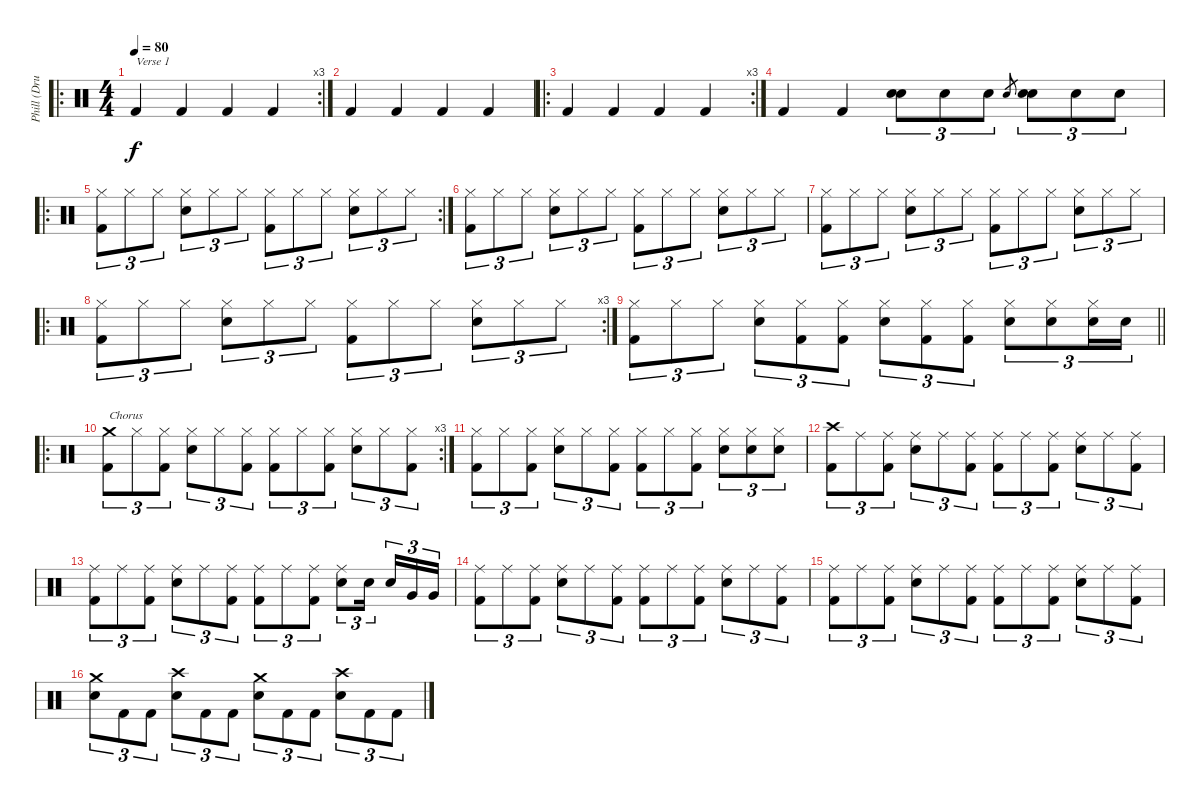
\track ("Phill (Drums)" "Phill (Dru") {instrument percussion}
\staff {score}
\articulation defaults
\ro
\rc 3
\ts (4 4)
\tempo 80
\clef neutral
\ks c "Kick (hit) 2".4{txt "Verse 1" dy f} "Kick (hit) 2".4 "Kick (hit) 2".4 "Kick (hit) 2".4
|
"Kick (hit) 2".4 "Kick (hit) 2".4 "Kick (hit) 2".4 "Kick (hit) 2".4 |
\ro
\rc 3 "Kick (hit) 2".4 "Kick (hit) 2".4 "Kick (hit) 2".4 "Kick (hit) 2".4
|
"Kick (hit) 2".4 "Kick (hit) 2".4 ("Electric Snare (hit)" "Electric Snare (hit)").8{tu (3 2)} "Electric Snare (hit)".8{tu (3 2)} "Electric Snare (hit)".8{tu (3 2)} "Electric Snare (hit)".8{gr} ("Electric Snare (hit)" "Electric Snare (hit)").8{tu (3 2)} "Electric Snare (hit)".8{tu (3 2)} "Electric Snare (hit)".8{tu (3 2)} |
\ro
\rc 2
("Kick (hit) 2" "Hi-Hat (closed)").8{tu (3 2)} "Hi-Hat (closed)".8{tu (3 2)} "Hi-Hat (closed)".8{tu (3 2)} ("Electric Snare (hit)" "Hi-Hat (closed)").8{tu (3 2)} "Hi-Hat (closed)".8{tu (3 2)} "Hi-Hat (closed)".8{tu (3 2)} ("Kick (hit) 2" "Hi-Hat (closed)").8{tu (3 2)} "Hi-Hat (closed)".8{tu (3 2)} "Hi-Hat (closed)".8{tu (3 2)} ("Electric Snare (hit)" "Hi-Hat (closed)").8{tu (3 2)} "Hi-Hat (closed)".8{tu (3 2)} "Hi-Hat (closed)".8{tu (3 2)} |
("Kick (hit) 2" "Hi-Hat (closed)").8{tu (3 2)} "Hi-Hat (closed)".8{tu (3 2)} "Hi-Hat (closed)".8{tu (3 2)} ("Electric Snare (hit)" "Hi-Hat (closed)").8{tu (3 2)} "Hi-Hat (closed)".8{tu (3 2)} "Hi-Hat (closed)".8{tu (3 2)} ("Kick (hit) 2" "Hi-Hat (closed)").8{tu (3 2)} "Hi-Hat (closed)".8{tu (3 2)} "Hi-Hat (closed)".8{tu (3 2)} ("Electric Snare (hit)" "Hi-Hat (closed)").8{tu (3 2)} "Hi-Hat (closed)".8{tu (3 2)} "Hi-Hat (closed)".8{tu (3 2)} |
("Kick (hit) 2" "Hi-Hat (closed)").8{tu (3 2)} "Hi-Hat (closed)".8{tu (3 2)} "Hi-Hat (closed)".8{tu (3 2)} ("Electric Snare (hit)" "Hi-Hat (closed)").8{tu (3 2)} "Hi-Hat (closed)".8{tu (3 2)} "Hi-Hat (closed)".8{tu (3 2)} ("Kick (hit) 2" "Hi-Hat (closed)").8{tu (3 2)} "Hi-Hat (closed)".8{tu (3 2)} "Hi-Hat (closed)".8{tu (3 2)} ("Electric Snare (hit)" "Hi-Hat (closed)").8{tu (3 2)} "Hi-Hat (closed)".8{tu (3 2)} "Hi-Hat (closed)".8{tu (3 2)} |
\ro
\rc 3
("Kick (hit) 2" "Hi-Hat (closed)").8{tu (3 2)} "Hi-Hat (closed)".8{tu (3 2)} "Hi-Hat (closed)".8{tu (3 2)} ("Electric Snare (hit)" "Hi-Hat (closed)").8{tu (3 2)} "Hi-Hat (closed)".8{tu (3 2)} "Hi-Hat (closed)".8{tu (3 2)} ("Kick (hit) 2" "Hi-Hat (closed)").8{tu (3 2)} "Hi-Hat (closed)".8{tu (3 2)} "Hi-Hat (closed)".8{tu (3 2)} ("Electric Snare (hit)" "Hi-Hat (closed)").8{tu (3 2)} "Hi-Hat (closed)".8{tu (3 2)} "Hi-Hat (closed)".8{tu (3 2)} |
\barLineRight lightlight
("Kick (hit) 2" "Hi-Hat (closed)").8{tu (3 2)} "Hi-Hat (closed)".8{tu (3 2)} "Hi-Hat (closed)".8{tu (3 2)} ("Electric Snare (hit)" "Hi-Hat (closed)").8{tu (3 2)} ("Kick (hit) 2" "Hi-Hat (closed)").8{tu (3 2)} ("Kick (hit) 2" "Hi-Hat (closed)").8{tu (3 2)} ("Electric Snare (hit)" "Hi-Hat (closed)").8{tu (3 2)} ("Kick (hit) 2" "Hi-Hat (closed)").8{tu (3 2)} ("Kick (hit) 2" "Hi-Hat (closed)").8{tu (3 2)} ("Electric Snare (hit)" "Hi-Hat (closed)").8{tu (3 2)} ("Electric Snare (hit)" "Hi-Hat (closed)").8{tu (3 2)} ("Electric Snare (hit)" "Hi-Hat (closed)").16{tu (3 2)} "Electric Snare (hit)".16{tu (3 2)} |
\ro
\rc 3
("Kick (hit) 2" "Crash medium (hit)").8{tu (3 2) txt "Chorus"} "Hi-Hat (closed)".8{tu (3 2)} ("Kick (hit) 2" "Hi-Hat (closed)").8{tu (3 2)} ("Electric Snare (hit)" "Hi-Hat (closed)").8{tu (3 2)} "Hi-Hat (closed)".8{tu (3 2)} ("Kick (hit) 2" "Hi-Hat (closed)").8{tu (3 2)} ("Kick (hit) 2" "Hi-Hat (closed)").8{tu (3 2)} "Hi-Hat (closed)".8{tu (3 2)} ("Kick (hit) 2" "Hi-Hat (closed)").8{tu (3 2)} ("Electric Snare (hit)" "Hi-Hat (closed)").8{tu (3 2)} "Hi-Hat (closed)".8{tu (3 2)} ("Kick (hit) 2" "Hi-Hat (closed)").8{tu (3 2)} |
("Kick (hit) 2" "Hi-Hat (closed)").8{tu (3 2)} "Hi-Hat (closed)".8{tu (3 2)} ("Kick (hit) 2" "Hi-Hat (closed)").8{tu (3 2)} ("Electric Snare (hit)" "Hi-Hat (closed)").8{tu (3 2)} "Hi-Hat (closed)".8{tu (3 2)} ("Kick (hit) 2" "Hi-Hat (closed)").8{tu (3 2)} ("Kick (hit) 2" "Hi-Hat (closed)").8{tu (3 2)} "Hi-Hat (closed)".8{tu (3 2)} ("Kick (hit) 2" "Hi-Hat (closed)").8{tu (3 2)} ("Electric Snare (hit)" "Hi-Hat (closed)").8{tu (3 2)} ("Electric Snare (hit)" "Hi-Hat (closed)").8{tu (3 2)} ("Electric Snare (hit)" "Hi-Hat (closed)").8{tu (3 2)} |
("Kick (hit) 2" "Crash high (hit)").8{tu (3 2)} "Ride (middle)".8{tu (3 2)} ("Kick (hit) 2" "Ride (middle)").8{tu (3 2)} ("Electric Snare (hit)" "Ride (middle)").8{tu (3 2)} "Ride (middle)".8{tu (3 2)} ("Kick (hit) 2" "Ride (middle)").8{tu (3 2)} ("Kick (hit) 2" "Ride (middle)").8{tu (3 2)} "Ride (middle)".8{tu (3 2)} ("Kick (hit) 2" "Ride (middle)").8{tu (3 2)} ("Electric Snare (hit)" "Ride (middle)").8{tu (3 2)} "Ride (middle)".8{tu (3 2)} ("Kick (hit) 2" "Ride (middle)").8{tu (3 2)} |
("Kick (hit) 2" "Ride (middle)").8{tu (3 2)} "Ride (middle)".8{tu (3 2)} ("Kick (hit) 2" "Ride (middle)").8{tu (3 2)} ("Electric Snare (hit)" "Ride (middle)").8{tu (3 2)} "Ride (middle)".8{tu (3 2)} ("Kick (hit) 2" "Ride (middle)").8{tu (3 2)} ("Kick (hit) 2" "Ride (middle)").8{tu (3 2)} "Ride (middle)".8{tu (3 2)} ("Kick (hit) 2" "Ride (middle)").8{tu (3 2)} ("Electric Snare (hit)" "Ride (middle)").8{tu (3 2)} "Electric Snare (hit)".16{tu (3 2) beam splitsecondary} "Electric Snare (hit)".16{tu (3 2)} "Very Low Tom (hit)".16{tu (3 2)} "Very Low Tom (hit)".16{tu (3 2)} |
("Kick (hit) 2" "Ride (middle)").8{tu (3 2)} "Ride (middle)".8{tu (3 2)} ("Kick (hit) 2" "Ride (middle)").8{tu (3 2)} ("Electric Snare (hit)" "Ride (middle)").8{tu (3 2)} "Ride (middle)".8{tu (3 2)} ("Kick (hit) 2" "Ride (middle)").8{tu (3 2)} ("Kick (hit) 2" "Ride (middle)").8{tu (3 2)} "Ride (middle)".8{tu (3 2)} ("Kick (hit) 2" "Ride (middle)").8{tu (3 2)} ("Electric Snare (hit)" "Ride (middle)").8{tu (3 2)} "Ride (middle)".8{tu (3 2)} ("Kick (hit) 2" "Ride (middle)").8{tu (3 2)} |
("Kick (hit) 2" "Ride (middle)").8{tu (3 2)} "Ride (middle)".8{tu (3 2)} ("Kick (hit) 2" "Ride (middle)").8{tu (3 2)} ("Electric Snare (hit)" "Ride (middle)").8{tu (3 2)} "Ride (middle)".8{tu (3 2)} ("Kick (hit) 2" "Ride (middle)").8{tu (3 2)} ("Kick (hit) 2" "Ride (middle)").8{tu (3 2)} "Ride (middle)".8{tu (3 2)} ("Kick (hit) 2" "Ride (middle)").8{tu (3 2)} ("Electric Snare (hit)" "Ride (middle)").8{tu (3 2)} "Ride (middle)".8{tu (3 2)} ("Kick (hit) 2" "Ride (middle)").8{tu (3 2)} |
("Electric Snare (hit)" "Crash medium (hit)").8{tu (3 2)} "Kick (hit) 2".8{tu (3 2)} "Kick (hit) 2".8{tu (3 2)} ("Electric Snare (hit)" "Crash high (hit)").8{tu (3 2)} "Kick (hit) 2".8{tu (3 2)} "Kick (hit) 2".8{tu (3 2)} ("Electric Snare (hit)" "Crash medium (hit)").8{tu (3 2)} "Kick (hit) 2".8{tu (3 2)} "Kick (hit) 2".8{tu (3 2)} ("Electric Snare (hit)" "Crash high (hit)").8{tu (3 2)} "Kick (hit) 2".8{tu (3 2)} "Kick (hit) 2".8{tu (3 2)}
